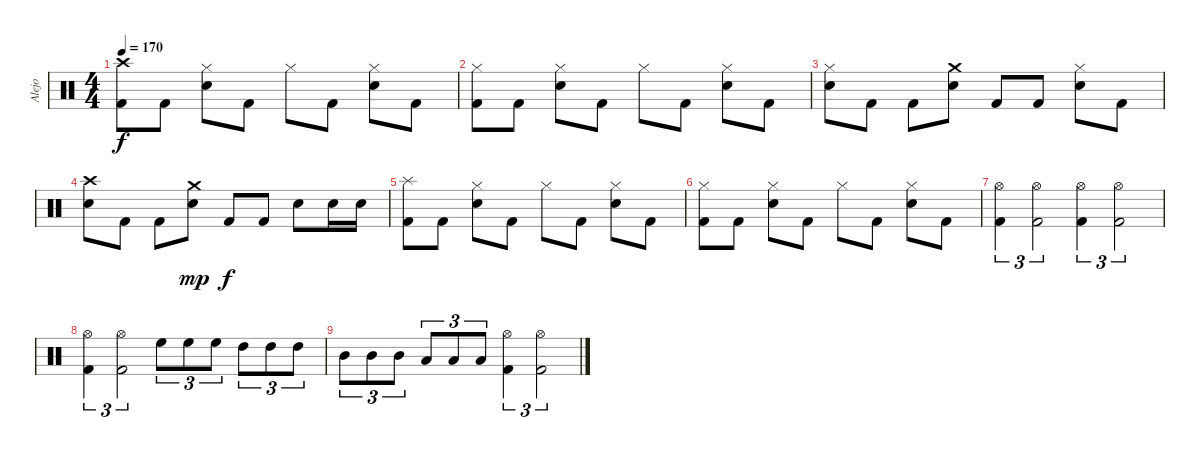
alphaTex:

\track ("Alejo" "Alejo") {instrument percussion}
\staff {score}
\articulation defaults
\ts (4 4)
\tempo 170
\clef neutral
\ks c
("Kick (hit) 2" "Crash high (hit)").8{dy f} "Kick (hit) 2".8 ("Snare (hit) 2" "Hi-Hat (closed)").8 "Kick (hit) 2".8 "Hi-Hat (closed)".8 "Kick (hit) 2".8 ("Snare (hit) 2" "Hi-Hat (closed)").8 "Kick (hit) 2".8 |
("Kick (hit) 2" "Hi-Hat (closed)").8 "Kick (hit) 2".8 ("Snare (hit) 2" "Hi-Hat (closed)").8 "Kick (hit) 2".8 "Hi-Hat (closed)".8 "Kick (hit) 2".8 ("Snare (hit) 2" "Hi-Hat (closed)").8 "Kick (hit) 2".8 |
("Snare (hit) 2" "Hi-Hat (closed)").8 "Kick (hit) 2".8 "Kick (hit) 2".8 ("Snare (hit) 2" "Crash medium (hit)").8 "Kick (hit) 2".8 "Kick (hit) 2".8 ("Snare (hit) 2" "Hi-Hat (closed)").8 "Kick (hit) 2".8 |
("Snare (hit) 2" "Crash high (hit)").8 "Kick (hit) 2".8 "Kick (hit) 2".8 ("Snare (hit) 2" "Crash medium (hit)").8{dy mp} "Kick (hit) 2".8{dy f} "Kick (hit) 2".8 "Snare (hit) 2".8 "Snare (hit) 2".16 "Snare (hit) 2".16 |
("Kick (hit) 2" "Splash (hit)").8 "Kick (hit) 2".8 ("Snare (hit) 2" "Hi-Hat (closed)").8 "Kick (hit) 2".8 "Hi-Hat (closed)".8 "Kick (hit) 2".8 ("Snare (hit) 2" "Hi-Hat (closed)").8 "Kick (hit) 2".8 |
("Kick (hit) 2" "Hi-Hat (closed)").8 "Kick (hit) 2".8 ("Snare (hit) 2" "Hi-Hat (closed)").8 "Kick (hit) 2".8 "Hi-Hat (closed)".8 "Kick (hit) 2".8 ("Snare (hit) 2" "Hi-Hat (closed)").8 "Kick (hit) 2".8 |
("Kick (hit) 2" "Hi-Hat (open)").4{tu (3 2)} ("Kick (hit) 2" "Hi-Hat (open)").2{tu (3 2)} ("Kick (hit) 2" "Hi-Hat (open)").4{tu (3 2)} ("Kick (hit) 2" "Hi-Hat (open)").2{tu (3 2)} |
("Kick (hit) 2" "Hi-Hat (open)").4{tu (3 2)} ("Kick (hit) 2" "Hi-Hat (open)").2{tu (3 2)} "High Floor Tom (hit)".8{tu (3 2)} "High Floor Tom (hit)".8{tu (3 2)} "High Floor Tom (hit)".8{tu (3 2)} "High Tom (hit)".8{tu (3 2)} "High Tom (hit)".8{tu (3 2)} "High Tom (hit)".8{tu (3 2)} |
"Mid Tom (hit)".8{tu (3 2)} "Mid Tom (hit)".8{tu (3 2)} "Mid Tom (hit)".8{tu (3 2)} "Low Tom (hit)".8{tu (3 2)} "Low Tom (hit)".8{tu (3 2)} "Low Tom (hit)".8{tu (3 2)} ("Kick (hit) 2" "Hi-Hat (open)").4{tu (3 2)} ("Kick (hit) 2" "Hi-Hat (open)").2{tu (3 2)}
